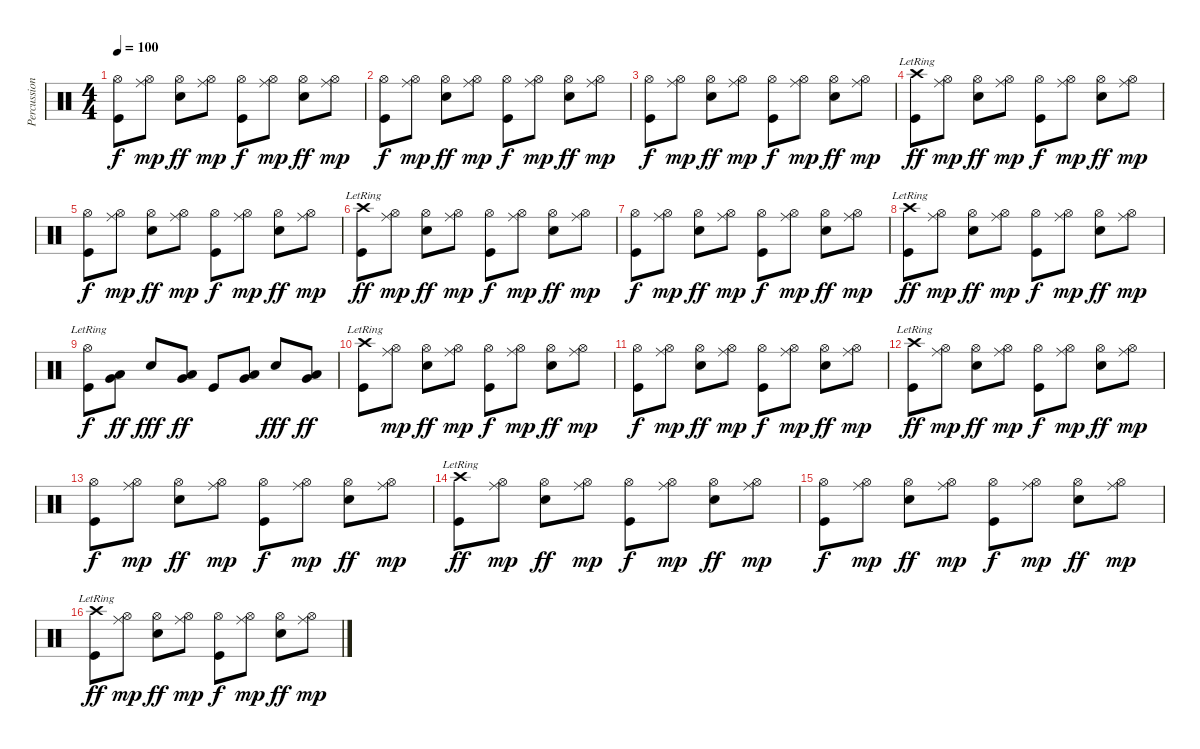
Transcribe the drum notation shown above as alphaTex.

\track ("Percussion" "Percussion") {instrument percussion}
\staff {score}
\articulation defaults
\ts (4 4)
\tempo 100
\clef neutral
\ks c
("Hi-Hat (open)" "Kick (hit)").8{dy f} ("Ride (middle)" "Hi-Hat (open)").8{dy mp} ("Hi-Hat (open)" "Electric Snare (hit)").8{dy ff} ("Ride (middle)" "Hi-Hat (open)").8{dy mp} ("Hi-Hat (open)" "Kick (hit)").8{dy f} ("Ride (middle)" "Hi-Hat (open)").8{dy mp} ("Hi-Hat (open)" "Electric Snare (hit)").8{dy ff} ("Ride (middle)" "Hi-Hat (open)").8{dy mp} |
("Hi-Hat (open)" "Kick (hit)").8{dy f} ("Ride (middle)" "Hi-Hat (open)").8{dy mp} ("Hi-Hat (open)" "Electric Snare (hit)").8{dy ff} ("Ride (middle)" "Hi-Hat (open)").8{dy mp} ("Hi-Hat (open)" "Kick (hit)").8{dy f} ("Ride (middle)" "Hi-Hat (open)").8{dy mp} ("Hi-Hat (open)" "Electric Snare (hit)").8{dy ff} ("Ride (middle)" "Hi-Hat (open)").8{dy mp} |
("Hi-Hat (open)" "Kick (hit)").8{dy f} ("Ride (middle)" "Hi-Hat (open)").8{dy mp} ("Hi-Hat (open)" "Electric Snare (hit)").8{dy ff} ("Ride (middle)" "Hi-Hat (open)").8{dy mp} ("Hi-Hat (open)" "Kick (hit)").8{dy f} ("Ride (middle)" "Hi-Hat (open)").8{dy mp} ("Hi-Hat (open)" "Electric Snare (hit)").8{dy ff} ("Ride (middle)" "Hi-Hat (open)").8{dy mp} |
("Crash high (hit)"{lr} "Kick (hit)").8{dy ff} ("Ride (middle)" "Hi-Hat (open)").8{dy mp} ("Hi-Hat (open)" "Electric Snare (hit)").8{dy ff} ("Ride (middle)" "Hi-Hat (open)").8{dy mp} ("Hi-Hat (open)" "Kick (hit)").8{dy f} ("Ride (middle)" "Hi-Hat (open)").8{dy mp} ("Hi-Hat (open)" "Electric Snare (hit)").8{dy ff} ("Ride (middle)" "Hi-Hat (open)").8{dy mp} |
("Hi-Hat (open)" "Kick (hit)").8{dy f} ("Ride (middle)" "Hi-Hat (open)").8{dy mp} ("Hi-Hat (open)" "Electric Snare (hit)").8{dy ff} ("Ride (middle)" "Hi-Hat (open)").8{dy mp} ("Hi-Hat (open)" "Kick (hit)").8{dy f} ("Ride (middle)" "Hi-Hat (open)").8{dy mp} ("Hi-Hat (open)" "Electric Snare (hit)").8{dy ff} ("Ride (middle)" "Hi-Hat (open)").8{dy mp} |
("Crash high (hit)"{lr} "Kick (hit)").8{dy ff} ("Ride (middle)" "Hi-Hat (open)").8{dy mp} ("Hi-Hat (open)" "Electric Snare (hit)").8{dy ff} ("Ride (middle)" "Hi-Hat (open)").8{dy mp} ("Hi-Hat (open)" "Kick (hit)").8{dy f} ("Ride (middle)" "Hi-Hat (open)").8{dy mp} ("Hi-Hat (open)" "Electric Snare (hit)").8{dy ff} ("Ride (middle)" "Hi-Hat (open)").8{dy mp} |
("Hi-Hat (open)" "Kick (hit)").8{dy f} ("Ride (middle)" "Hi-Hat (open)").8{dy mp} ("Hi-Hat (open)" "Electric Snare (hit)").8{dy ff} ("Ride (middle)" "Hi-Hat (open)").8{dy mp} ("Hi-Hat (open)" "Kick (hit)").8{dy f} ("Ride (middle)" "Hi-Hat (open)").8{dy mp} ("Hi-Hat (open)" "Electric Snare (hit)").8{dy ff} ("Ride (middle)" "Hi-Hat (open)").8{dy mp} |
("Crash high (hit)"{lr} "Kick (hit)").8{dy ff} ("Ride (middle)" "Hi-Hat (open)").8{dy mp} ("Hi-Hat (open)" "Electric Snare (hit)").8{dy ff} ("Ride (middle)" "Hi-Hat (open)").8{dy mp} ("Hi-Hat (open)" "Kick (hit)").8{dy f} ("Ride (middle)" "Hi-Hat (open)").8{dy mp} ("Hi-Hat (open)" "Electric Snare (hit)").8{dy ff} ("Ride (middle)" "Hi-Hat (open)").8{dy mp} |
("Hi-Hat (open)"{lr} "Kick (hit)").8{dy f} ("Low Tom (hit)" "Very Low Tom (hit)").8{dy ff} "Electric Snare (hit)".8{dy fff} ("Very Low Tom (hit)" "Low Floor Tom (hit)").8{dy ff} "Kick (hit)".8 ("Low Tom (hit)" "Very Low Tom (hit)").8 "Electric Snare (hit)".8{dy fff} ("Very Low Tom (hit)" "Low Floor Tom (hit)").8{dy ff} |
("Crash high (hit)"{lr} "Kick (hit)").8 ("Ride (middle)" "Hi-Hat (open)").8{dy mp} ("Hi-Hat (open)" "Electric Snare (hit)").8{dy ff} ("Ride (middle)" "Hi-Hat (open)").8{dy mp} ("Hi-Hat (open)" "Kick (hit)").8{dy f} ("Ride (middle)" "Hi-Hat (open)").8{dy mp} ("Hi-Hat (open)" "Electric Snare (hit)").8{dy ff} ("Ride (middle)" "Hi-Hat (open)").8{dy mp} |
("Hi-Hat (open)" "Kick (hit)").8{dy f} ("Ride (middle)" "Hi-Hat (open)").8{dy mp} ("Hi-Hat (open)" "Electric Snare (hit)").8{dy ff} ("Ride (middle)" "Hi-Hat (open)").8{dy mp} ("Hi-Hat (open)" "Kick (hit)").8{dy f} ("Ride (middle)" "Hi-Hat (open)").8{dy mp} ("Hi-Hat (open)" "Electric Snare (hit)").8{dy ff} ("Ride (middle)" "Hi-Hat (open)").8{dy mp} |
("Crash high (hit)"{lr} "Kick (hit)").8{dy ff} ("Ride (middle)" "Hi-Hat (open)").8{dy mp} ("Hi-Hat (open)" "Electric Snare (hit)").8{dy ff} ("Ride (middle)" "Hi-Hat (open)").8{dy mp} ("Hi-Hat (open)" "Kick (hit)").8{dy f} ("Ride (middle)" "Hi-Hat (open)").8{dy mp} ("Hi-Hat (open)" "Electric Snare (hit)").8{dy ff} ("Ride (middle)" "Hi-Hat (open)").8{dy mp} |
("Hi-Hat (open)" "Kick (hit)").8{dy f} ("Ride (middle)" "Hi-Hat (open)").8{dy mp} ("Hi-Hat (open)" "Electric Snare (hit)").8{dy ff} ("Ride (middle)" "Hi-Hat (open)").8{dy mp} ("Hi-Hat (open)" "Kick (hit)").8{dy f} ("Ride (middle)" "Hi-Hat (open)").8{dy mp} ("Hi-Hat (open)" "Electric Snare (hit)").8{dy ff} ("Ride (middle)" "Hi-Hat (open)").8{dy mp} |
("Crash high (hit)"{lr} "Kick (hit)").8{dy ff} ("Ride (middle)" "Hi-Hat (open)").8{dy mp} ("Hi-Hat (open)" "Electric Snare (hit)").8{dy ff} ("Ride (middle)" "Hi-Hat (open)").8{dy mp} ("Hi-Hat (open)" "Kick (hit)").8{dy f} ("Ride (middle)" "Hi-Hat (open)").8{dy mp} ("Hi-Hat (open)" "Electric Snare (hit)").8{dy ff} ("Ride (middle)" "Hi-Hat (open)").8{dy mp} |
("Hi-Hat (open)" "Kick (hit)").8{dy f} ("Ride (middle)" "Hi-Hat (open)").8{dy mp} ("Hi-Hat (open)" "Electric Snare (hit)").8{dy ff} ("Ride (middle)" "Hi-Hat (open)").8{dy mp} ("Hi-Hat (open)" "Kick (hit)").8{dy f} ("Ride (middle)" "Hi-Hat (open)").8{dy mp} ("Hi-Hat (open)" "Electric Snare (hit)").8{dy ff} ("Ride (middle)" "Hi-Hat (open)").8{dy mp} |
("Crash high (hit)"{lr} "Kick (hit)").8{dy ff} ("Ride (middle)" "Hi-Hat (open)").8{dy mp} ("Hi-Hat (open)" "Electric Snare (hit)").8{dy ff} ("Ride (middle)" "Hi-Hat (open)").8{dy mp} ("Hi-Hat (open)" "Kick (hit)").8{dy f} ("Ride (middle)" "Hi-Hat (open)").8{dy mp} ("Hi-Hat (open)" "Electric Snare (hit)").8{dy ff} ("Ride (middle)" "Hi-Hat (open)").8{dy mp}
